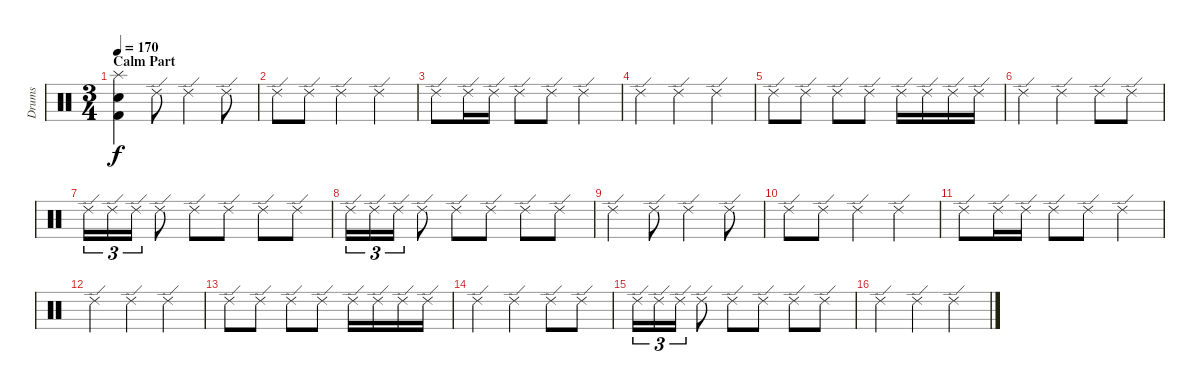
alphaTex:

\track ("Drums" "Drums") {instrument percussion}
\staff {score}
\articulation defaults
\ts (3 4)
\section ("" "Calm Part")
\tempo 170
\clef neutral
\ks c
("Kick (hit) 2" "Snare (hit) 2" "Splash (hit)").4{dy f} "Ride (edge) 2".8 "Ride (edge) 2".4 "Ride (edge) 2".8 |
"Ride (edge) 2".8 "Ride (edge) 2".8 "Ride (edge) 2".4 "Ride (edge) 2".4 |
"Ride (edge) 2".8 "Ride (edge) 2".16 "Ride (edge) 2".16 "Ride (edge) 2".8 "Ride (edge) 2".8 "Ride (edge) 2".4 |
"Ride (edge) 2".4 "Ride (edge) 2".4 "Ride (edge) 2".4 |
"Ride (edge) 2".8 "Ride (edge) 2".8 "Ride (edge) 2".8 "Ride (edge) 2".8 "Ride (edge) 2".16 "Ride (edge) 2".16 "Ride (edge) 2".16 "Ride (edge) 2".16 |
"Ride (edge) 2".4 "Ride (edge) 2".4 "Ride (edge) 2".8 "Ride (edge) 2".8 |
"Ride (edge) 2".16{tu (3 2)} "Ride (edge) 2".16{tu (3 2)} "Ride (edge) 2".16{tu (3 2)} "Ride (edge) 2".8 "Ride (edge) 2".8 "Ride (edge) 2".8 "Ride (edge) 2".8 "Ride (edge) 2".8 |
"Ride (edge) 2".16{tu (3 2)} "Ride (edge) 2".16{tu (3 2)} "Ride (edge) 2".16{tu (3 2)} "Ride (edge) 2".8 "Ride (edge) 2".8 "Ride (edge) 2".8 "Ride (edge) 2".8 "Ride (edge) 2".8 |
"Ride (edge) 2".4 "Ride (edge) 2".8 "Ride (edge) 2".4 "Ride (edge) 2".8 |
"Ride (edge) 2".8 "Ride (edge) 2".8 "Ride (edge) 2".4 "Ride (edge) 2".4 |
"Ride (edge) 2".8 "Ride (edge) 2".16 "Ride (edge) 2".16 "Ride (edge) 2".8 "Ride (edge) 2".8 "Ride (edge) 2".4 |
"Ride (edge) 2".4 "Ride (edge) 2".4 "Ride (edge) 2".4 |
"Ride (edge) 2".8 "Ride (edge) 2".8 "Ride (edge) 2".8 "Ride (edge) 2".8 "Ride (edge) 2".16 "Ride (edge) 2".16 "Ride (edge) 2".16 "Ride (edge) 2".16 |
"Ride (edge) 2".4 "Ride (edge) 2".4 "Ride (edge) 2".8 "Ride (edge) 2".8 |
"Ride (edge) 2".16{tu (3 2)} "Ride (edge) 2".16{tu (3 2)} "Ride (edge) 2".16{tu (3 2)} "Ride (edge) 2".8 "Ride (edge) 2".8 "Ride (edge) 2".8 "Ride (edge) 2".8 "Ride (edge) 2".8 |
"Ride (edge) 2".4 "Ride (edge) 2".4 "Ride (edge) 2".4
